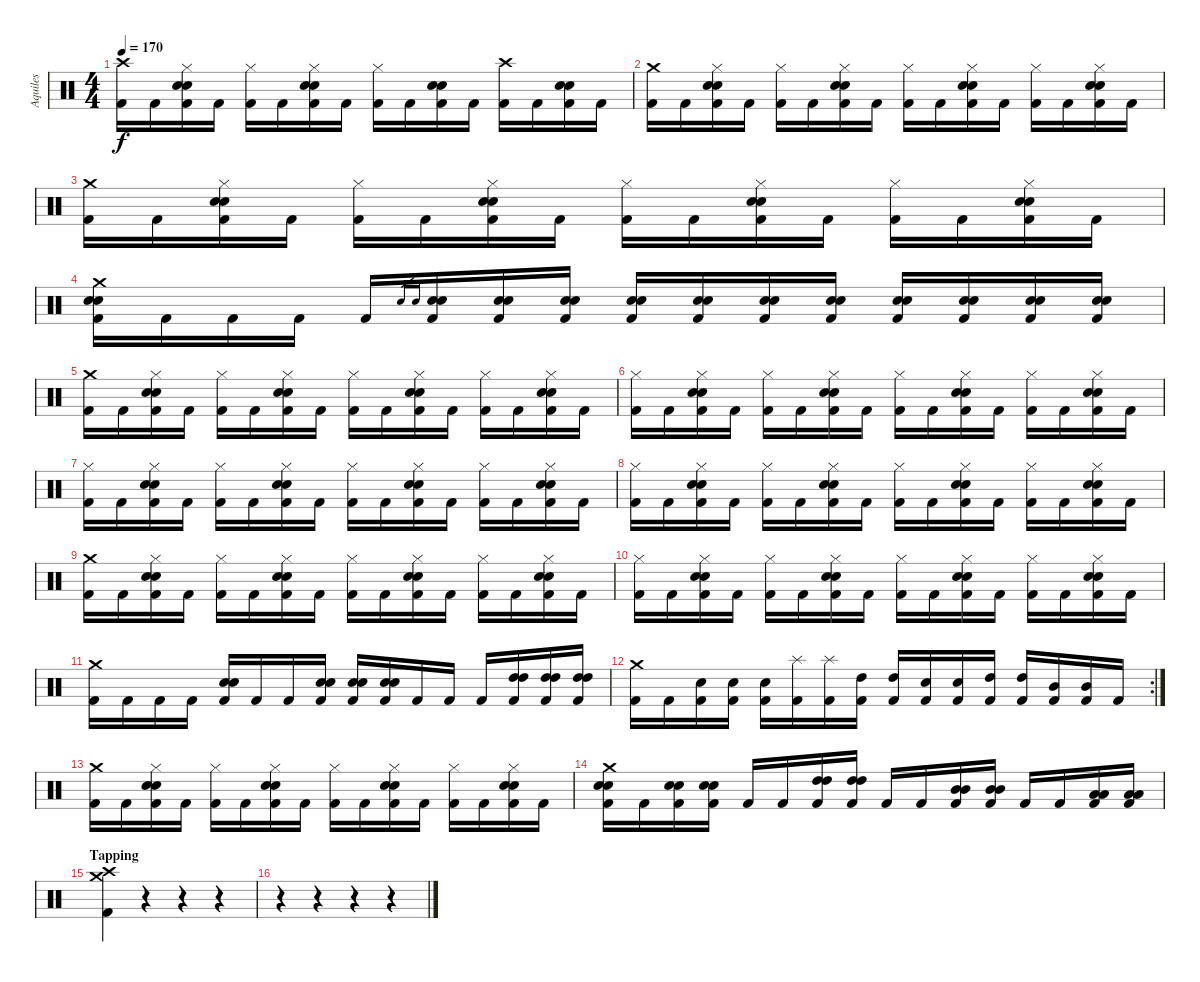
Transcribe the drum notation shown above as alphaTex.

\track ("Aquiles" "Aquiles") {instrument percussion}
\staff {score}
\articulation defaults
\ts (4 4)
\tempo 170
\clef neutral
\ks c
("Crash high (hit)" "Kick (hit) 2").16{dy f} "Kick (hit) 2".16 ("Hi-Hat (closed)" "Electric Snare (hit)" "Snare (hit) 2" "Kick (hit) 2").16 "Kick (hit) 2".16 ("Hi-Hat (closed)" "Kick (hit) 2").16 "Kick (hit) 2".16 ("Hi-Hat (closed)" "Electric Snare (hit)" "Snare (hit) 2" "Kick (hit) 2").16 "Kick (hit) 2".16 ("Hi-Hat (closed)" "Kick (hit) 2").16 "Kick (hit) 2".16 ("Electric Snare (hit)" "Snare (hit) 2" "Kick (hit) 2").16 "Kick (hit) 2".16 ("Crash high (hit)" "Kick (hit) 2").16 "Kick (hit) 2".16 ("Electric Snare (hit)" "Snare (hit) 2" "Kick (hit) 2").16 "Kick (hit) 2".16 |
("Crash medium (hit)" "Kick (hit) 2").16 "Kick (hit) 2".16 ("Hi-Hat (closed)" "Electric Snare (hit)" "Snare (hit) 2" "Kick (hit) 2").16 "Kick (hit) 2".16 ("Hi-Hat (closed)" "Kick (hit) 2").16 "Kick (hit) 2".16 ("Hi-Hat (closed)" "Electric Snare (hit)" "Snare (hit) 2" "Kick (hit) 2").16 "Kick (hit) 2".16 ("Hi-Hat (closed)" "Kick (hit) 2").16 "Kick (hit) 2".16 ("Hi-Hat (closed)" "Electric Snare (hit)" "Snare (hit) 2" "Kick (hit) 2").16 "Kick (hit) 2".16 ("Hi-Hat (closed)" "Kick (hit) 2").16 "Kick (hit) 2".16 ("Hi-Hat (closed)" "Electric Snare (hit)" "Snare (hit) 2" "Kick (hit) 2").16 "Kick (hit) 2".16 |
("Crash medium (hit)" "Kick (hit) 2").16 "Kick (hit) 2".16 ("Hi-Hat (closed)" "Electric Snare (hit)" "Snare (hit) 2" "Kick (hit) 2").16 "Kick (hit) 2".16 ("Hi-Hat (closed)" "Kick (hit) 2").16 "Kick (hit) 2".16 ("Hi-Hat (closed)" "Electric Snare (hit)" "Snare (hit) 2" "Kick (hit) 2").16 "Kick (hit) 2".16 ("Hi-Hat (closed)" "Kick (hit) 2").16 "Kick (hit) 2".16 ("Hi-Hat (closed)" "Electric Snare (hit)" "Snare (hit) 2" "Kick (hit) 2").16 "Kick (hit) 2".16 ("Hi-Hat (closed)" "Kick (hit) 2").16 "Kick (hit) 2".16 ("Hi-Hat (closed)" "Electric Snare (hit)" "Snare (hit) 2" "Kick (hit) 2").16 "Kick (hit) 2".16 |
("Crash medium (hit)" "Electric Snare (hit)" "Snare (hit) 2" "Kick (hit) 2").16 "Kick (hit) 2".16 "Kick (hit) 2".16 "Kick (hit) 2".16 "Kick (hit) 2".16 "Electric Snare (hit)".16{gr} "Snare (hit) 2".16{gr} ("Electric Snare (hit)" "Snare (hit) 2" "Kick (hit) 2").16 ("Electric Snare (hit)" "Snare (hit) 2" "Kick (hit) 2").16 ("Electric Snare (hit)" "Snare (hit) 2" "Kick (hit) 2").16 ("Electric Snare (hit)" "Snare (hit) 2" "Kick (hit) 2").16 ("Electric Snare (hit)" "Snare (hit) 2" "Kick (hit) 2").16 ("Electric Snare (hit)" "Snare (hit) 2" "Kick (hit) 2").16 ("Electric Snare (hit)" "Snare (hit) 2" "Kick (hit) 2").16 ("Electric Snare (hit)" "Snare (hit) 2" "Kick (hit) 2").16 ("Electric Snare (hit)" "Snare (hit) 2" "Kick (hit) 2").16 ("Electric Snare (hit)" "Snare (hit) 2" "Kick (hit) 2").16 ("Electric Snare (hit)" "Snare (hit) 2" "Kick (hit) 2").16 |
("Crash medium (hit)" "Kick (hit) 2").16 "Kick (hit) 2".16 ("Hi-Hat (closed)" "Electric Snare (hit)" "Snare (hit) 2" "Kick (hit) 2").16 "Kick (hit) 2".16 ("Hi-Hat (closed)" "Kick (hit) 2").16 "Kick (hit) 2".16 ("Hi-Hat (closed)" "Electric Snare (hit)" "Snare (hit) 2" "Kick (hit) 2").16 "Kick (hit) 2".16 ("Hi-Hat (closed)" "Kick (hit) 2").16 "Kick (hit) 2".16 ("Hi-Hat (closed)" "Electric Snare (hit)" "Snare (hit) 2" "Kick (hit) 2").16 "Kick (hit) 2".16 ("Hi-Hat (closed)" "Kick (hit) 2").16 "Kick (hit) 2".16 ("Hi-Hat (closed)" "Electric Snare (hit)" "Snare (hit) 2" "Kick (hit) 2").16 "Kick (hit) 2".16 |
("Hi-Hat (closed)" "Kick (hit) 2").16 "Kick (hit) 2".16 ("Hi-Hat (closed)" "Electric Snare (hit)" "Snare (hit) 2" "Kick (hit) 2").16 "Kick (hit) 2".16 ("Hi-Hat (closed)" "Kick (hit) 2").16 "Kick (hit) 2".16 ("Hi-Hat (closed)" "Electric Snare (hit)" "Snare (hit) 2" "Kick (hit) 2").16 "Kick (hit) 2".16 ("Hi-Hat (closed)" "Kick (hit) 2").16 "Kick (hit) 2".16 ("Hi-Hat (closed)" "Electric Snare (hit)" "Snare (hit) 2" "Kick (hit) 2").16 "Kick (hit) 2".16 ("Hi-Hat (closed)" "Kick (hit) 2").16 "Kick (hit) 2".16 ("Hi-Hat (closed)" "Electric Snare (hit)" "Snare (hit) 2" "Kick (hit) 2").16 "Kick (hit) 2".16 |
("Hi-Hat (closed)" "Kick (hit) 2").16 "Kick (hit) 2".16 ("Hi-Hat (closed)" "Electric Snare (hit)" "Snare (hit) 2" "Kick (hit) 2").16 "Kick (hit) 2".16 ("Hi-Hat (closed)" "Kick (hit) 2").16 "Kick (hit) 2".16 ("Hi-Hat (closed)" "Electric Snare (hit)" "Snare (hit) 2" "Kick (hit) 2").16 "Kick (hit) 2".16 ("Hi-Hat (closed)" "Kick (hit) 2").16 "Kick (hit) 2".16 ("Hi-Hat (closed)" "Electric Snare (hit)" "Snare (hit) 2" "Kick (hit) 2").16 "Kick (hit) 2".16 ("Hi-Hat (closed)" "Kick (hit) 2").16 "Kick (hit) 2".16 ("Hi-Hat (closed)" "Electric Snare (hit)" "Snare (hit) 2" "Kick (hit) 2").16 "Kick (hit) 2".16 |
("Hi-Hat (closed)" "Kick (hit) 2").16 "Kick (hit) 2".16 ("Hi-Hat (closed)" "Electric Snare (hit)" "Snare (hit) 2" "Kick (hit) 2").16 "Kick (hit) 2".16 ("Hi-Hat (closed)" "Kick (hit) 2").16 "Kick (hit) 2".16 ("Hi-Hat (closed)" "Electric Snare (hit)" "Snare (hit) 2" "Kick (hit) 2").16 "Kick (hit) 2".16 ("Hi-Hat (closed)" "Kick (hit) 2").16 "Kick (hit) 2".16 ("Hi-Hat (closed)" "Electric Snare (hit)" "Snare (hit) 2" "Kick (hit) 2").16 "Kick (hit) 2".16 ("Hi-Hat (closed)" "Kick (hit) 2").16 "Kick (hit) 2".16 ("Hi-Hat (closed)" "Electric Snare (hit)" "Snare (hit) 2" "Kick (hit) 2").16 "Kick (hit) 2".16 |
("Crash medium (hit)" "Kick (hit) 2").16 "Kick (hit) 2".16 ("Hi-Hat (closed)" "Electric Snare (hit)" "Snare (hit) 2" "Kick (hit) 2").16 "Kick (hit) 2".16 ("Hi-Hat (closed)" "Kick (hit) 2").16 "Kick (hit) 2".16 ("Hi-Hat (closed)" "Electric Snare (hit)" "Snare (hit) 2" "Kick (hit) 2").16 "Kick (hit) 2".16 ("Hi-Hat (closed)" "Kick (hit) 2").16 "Kick (hit) 2".16 ("Hi-Hat (closed)" "Electric Snare (hit)" "Snare (hit) 2" "Kick (hit) 2").16 "Kick (hit) 2".16 ("Hi-Hat (closed)" "Kick (hit) 2").16 "Kick (hit) 2".16 ("Hi-Hat (closed)" "Electric Snare (hit)" "Snare (hit) 2" "Kick (hit) 2").16 "Kick (hit) 2".16 |
("Hi-Hat (closed)" "Kick (hit) 2").16 "Kick (hit) 2".16 ("Hi-Hat (closed)" "Electric Snare (hit)" "Snare (hit) 2" "Kick (hit) 2").16 "Kick (hit) 2".16 ("Hi-Hat (closed)" "Kick (hit) 2").16 "Kick (hit) 2".16 ("Hi-Hat (closed)" "Electric Snare (hit)" "Snare (hit) 2" "Kick (hit) 2").16 "Kick (hit) 2".16 ("Hi-Hat (closed)" "Kick (hit) 2").16 "Kick (hit) 2".16 ("Hi-Hat (closed)" "Electric Snare (hit)" "Snare (hit) 2" "Kick (hit) 2").16 "Kick (hit) 2".16 ("Hi-Hat (closed)" "Kick (hit) 2").16 "Kick (hit) 2".16 ("Hi-Hat (closed)" "Electric Snare (hit)" "Snare (hit) 2" "Kick (hit) 2").16 "Kick (hit) 2".16 |
("Crash medium (hit)" "Kick (hit) 2").16 "Kick (hit) 2".16 "Kick (hit) 2".16 "Kick (hit) 2".16 ("Electric Snare (hit)" "Snare (hit) 2" "Kick (hit) 2").16 "Kick (hit) 2".16 "Kick (hit) 2".16 ("Electric Snare (hit)" "Snare (hit) 2" "Kick (hit) 2").16 ("Electric Snare (hit)" "Snare (hit) 2" "Kick (hit) 2").16 ("Electric Snare (hit)" "Snare (hit) 2" "Kick (hit) 2").16 "Kick (hit) 2".16 "Kick (hit) 2".16 "Kick (hit) 2".16 ("High Tom (hit)" "High Tom (hit)" "Kick (hit) 2").16 ("High Tom (hit)" "High Tom (hit)" "Kick (hit) 2").16 ("High Tom (hit)" "High Tom (hit)" "Kick (hit) 2").16 |
\rc 2
("Crash medium (hit)" "Kick (hit) 2").16 "Kick (hit) 2".16 ("Electric Snare (hit)" "Kick (hit) 2").16 ("Electric Snare (hit)" "Kick (hit) 2").16 ("Electric Snare (hit)" "Kick (hit) 2").16 ("Splash (hit)" "Kick (hit) 2").16 ("Splash (hit)" "Kick (hit) 2").16 ("High Tom (hit)" "Kick (hit) 2").16 ("High Tom (hit)" "Kick (hit) 2").16 ("Electric Snare (hit)" "Kick (hit) 2").16 ("Electric Snare (hit)" "Kick (hit) 2").16 ("High Tom (hit)" "Kick (hit) 2").16 ("High Tom (hit)" "Kick (hit) 2").16 ("Mid Tom (hit)" "Kick (hit) 2").16 ("Mid Tom (hit)" "Kick (hit) 2").16 "Kick (hit) 2".16 |
("Crash medium (hit)" "Kick (hit) 2").16 "Kick (hit) 2".16 ("Hi-Hat (closed)" "Electric Snare (hit)" "Snare (hit) 2" "Kick (hit) 2").16 "Kick (hit) 2".16 ("Hi-Hat (closed)" "Kick (hit) 2").16 "Kick (hit) 2".16 ("Hi-Hat (closed)" "Electric Snare (hit)" "Snare (hit) 2" "Kick (hit) 2").16 "Kick (hit) 2".16 ("Hi-Hat (closed)" "Kick (hit) 2").16 "Kick (hit) 2".16 ("Hi-Hat (closed)" "Electric Snare (hit)" "Snare (hit) 2" "Kick (hit) 2").16 "Kick (hit) 2".16 ("Hi-Hat (closed)" "Kick (hit) 2").16 "Kick (hit) 2".16 ("Hi-Hat (closed)" "Electric Snare (hit)" "Snare (hit) 2" "Kick (hit) 2").16 "Kick (hit) 2".16 |
("Crash medium (hit)" "Electric Snare (hit)" "Snare (hit) 2" "Kick (hit) 2").16 "Kick (hit) 2".16 ("Electric Snare (hit)" "Snare (hit) 2" "Kick (hit) 2").16 ("Electric Snare (hit)" "Snare (hit) 2" "Kick (hit) 2").16 "Kick (hit) 2".16 "Kick (hit) 2".16 ("High Tom (hit)" "High Tom (hit)" "Kick (hit) 2").16 ("High Tom (hit)" "High Tom (hit)" "Kick (hit) 2").16 "Kick (hit) 2".16 "Kick (hit) 2".16 ("Mid Tom (hit)" "Mid Tom (hit)" "Kick (hit) 2").16 ("Mid Tom (hit)" "Mid Tom (hit)" "Kick (hit) 2").16 "Kick (hit) 2".16 "Kick (hit) 2".16 ("Low Tom (hit)" "Low Tom (hit)" "Kick (hit) 2").16 ("Low Tom (hit)" "Low Tom (hit)" "Kick (hit) 2").16 |
\section ("" "Tapping")
("Crash medium (hit)" "Crash high (hit)" "Kick (hit) 2").4 r.4 r.4 r.4 |
r.4 r.4 r.4 r.4
